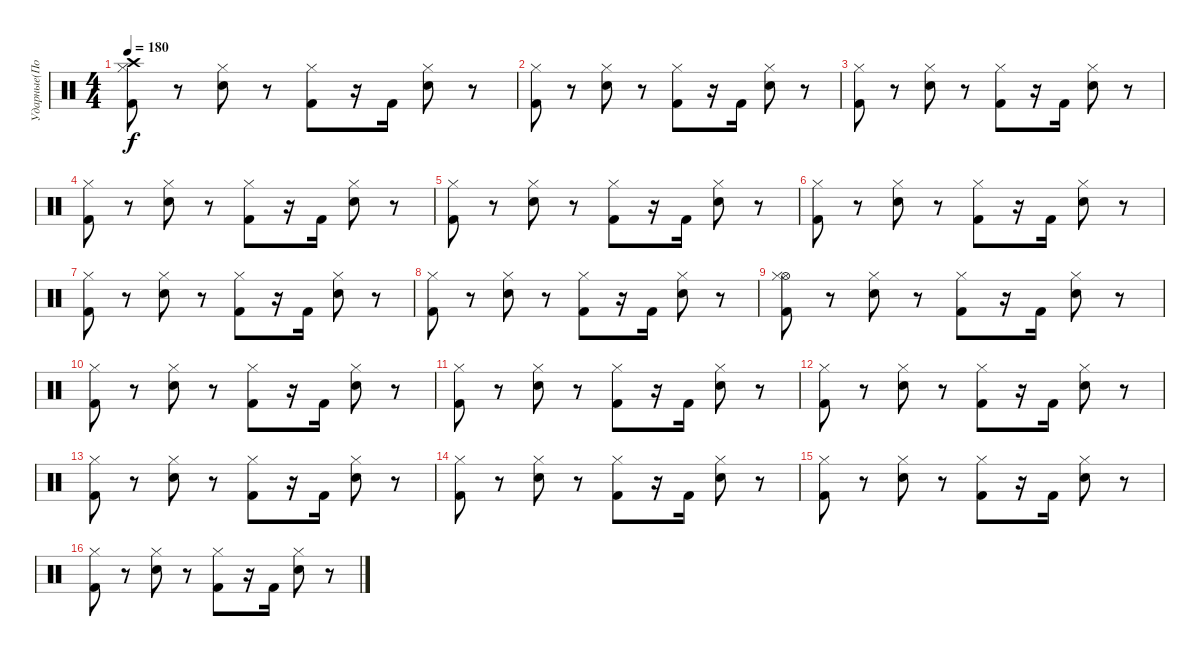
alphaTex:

\track ("Ударные(Потапкин)" "Ударные(По") {instrument percussion}
\staff {score}
\articulation defaults
\ts (4 4)
\tempo 180
\clef neutral
\ks c
("Crash high (hit)" "Hi-Hat (closed)" "Kick (hit) 2").8{dy f} r.8 ("Hi-Hat (closed)" "Electric Snare (hit)").8 r.8 ("Hi-Hat (closed)" "Kick (hit) 2").8 r.16 "Kick (hit) 2".16 ("Hi-Hat (closed)" "Electric Snare (hit)").8 r.8 |
("Kick (hit) 2" "Hi-Hat (closed)").8 r.8 ("Electric Snare (hit)" "Hi-Hat (closed)").8 r.8 ("Kick (hit) 2" "Hi-Hat (closed)").8 r.16 "Kick (hit) 2".16 ("Electric Snare (hit)" "Hi-Hat (closed)").8 r.8 |
("Kick (hit) 2" "Hi-Hat (closed)").8 r.8 ("Electric Snare (hit)" "Hi-Hat (closed)").8 r.8 ("Kick (hit) 2" "Hi-Hat (closed)").8 r.16 "Kick (hit) 2".16 ("Electric Snare (hit)" "Hi-Hat (closed)").8 r.8 |
("Hi-Hat (closed)" "Kick (hit) 2").8 r.8 ("Hi-Hat (closed)" "Electric Snare (hit)").8 r.8 ("Hi-Hat (closed)" "Kick (hit) 2").8 r.16 "Kick (hit) 2".16 ("Hi-Hat (closed)" "Electric Snare (hit)").8 r.8 |
("Hi-Hat (closed)" "Kick (hit) 2").8 r.8 ("Hi-Hat (closed)" "Electric Snare (hit)").8 r.8 ("Hi-Hat (closed)" "Kick (hit) 2").8 r.16 "Kick (hit) 2".16 ("Hi-Hat (closed)" "Electric Snare (hit)").8 r.8 |
("Kick (hit) 2" "Hi-Hat (closed)").8 r.8 ("Electric Snare (hit)" "Hi-Hat (closed)").8 r.8 ("Kick (hit) 2" "Hi-Hat (closed)").8 r.16 "Kick (hit) 2".16 ("Electric Snare (hit)" "Hi-Hat (closed)").8 r.8 |
("Kick (hit) 2" "Hi-Hat (closed)").8 r.8 ("Electric Snare (hit)" "Hi-Hat (closed)").8 r.8 ("Kick (hit) 2" "Hi-Hat (closed)").8 r.16 "Kick (hit) 2".16 ("Electric Snare (hit)" "Hi-Hat (closed)").8 r.8 |
("Kick (hit) 2" "Hi-Hat (closed)").8 r.8 ("Electric Snare (hit)" "Hi-Hat (closed)").8 r.8 ("Kick (hit) 2" "Hi-Hat (closed)").8 r.16 "Kick (hit) 2".16 ("Electric Snare (hit)" "Hi-Hat (closed)").8 r.8 |
("Hi-Hat (open)" "Hi-Hat (closed)" "Kick (hit) 2").8 r.8 ("Hi-Hat (closed)" "Electric Snare (hit)").8 r.8 ("Hi-Hat (closed)" "Kick (hit) 2").8 r.16 "Kick (hit) 2".16 ("Hi-Hat (closed)" "Electric Snare (hit)").8 r.8 |
("Hi-Hat (closed)" "Kick (hit) 2").8 r.8 ("Hi-Hat (closed)" "Electric Snare (hit)").8 r.8 ("Hi-Hat (closed)" "Kick (hit) 2").8 r.16 "Kick (hit) 2".16 ("Hi-Hat (closed)" "Electric Snare (hit)").8 r.8 |
("Hi-Hat (closed)" "Kick (hit) 2").8 r.8 ("Hi-Hat (closed)" "Electric Snare (hit)").8 r.8 ("Hi-Hat (closed)" "Kick (hit) 2").8 r.16 "Kick (hit) 2".16 ("Hi-Hat (closed)" "Electric Snare (hit)").8 r.8 |
("Kick (hit) 2" "Hi-Hat (closed)").8 r.8 ("Electric Snare (hit)" "Hi-Hat (closed)").8 r.8 ("Kick (hit) 2" "Hi-Hat (closed)").8 r.16 "Kick (hit) 2".16 ("Electric Snare (hit)" "Hi-Hat (closed)").8 r.8 |
("Hi-Hat (closed)" "Kick (hit) 2").8 r.8 ("Hi-Hat (closed)" "Electric Snare (hit)").8 r.8 ("Hi-Hat (closed)" "Kick (hit) 2").8 r.16 "Kick (hit) 2".16 ("Hi-Hat (closed)" "Electric Snare (hit)").8 r.8 |
("Hi-Hat (closed)" "Kick (hit) 2").8 r.8 ("Hi-Hat (closed)" "Electric Snare (hit)").8 r.8 ("Hi-Hat (closed)" "Kick (hit) 2").8 r.16 "Kick (hit) 2".16 ("Hi-Hat (closed)" "Electric Snare (hit)").8 r.8 |
("Hi-Hat (closed)" "Kick (hit) 2").8 r.8 ("Hi-Hat (closed)" "Electric Snare (hit)").8 r.8 ("Hi-Hat (closed)" "Kick (hit) 2").8 r.16 "Kick (hit) 2".16 ("Hi-Hat (closed)" "Electric Snare (hit)").8 r.8 |
("Hi-Hat (closed)" "Kick (hit) 2").8 r.8 ("Hi-Hat (closed)" "Electric Snare (hit)").8 r.8 ("Hi-Hat (closed)" "Kick (hit) 2").8 r.16 "Kick (hit) 2".16 ("Hi-Hat (closed)" "Electric Snare (hit)").8 r.8
